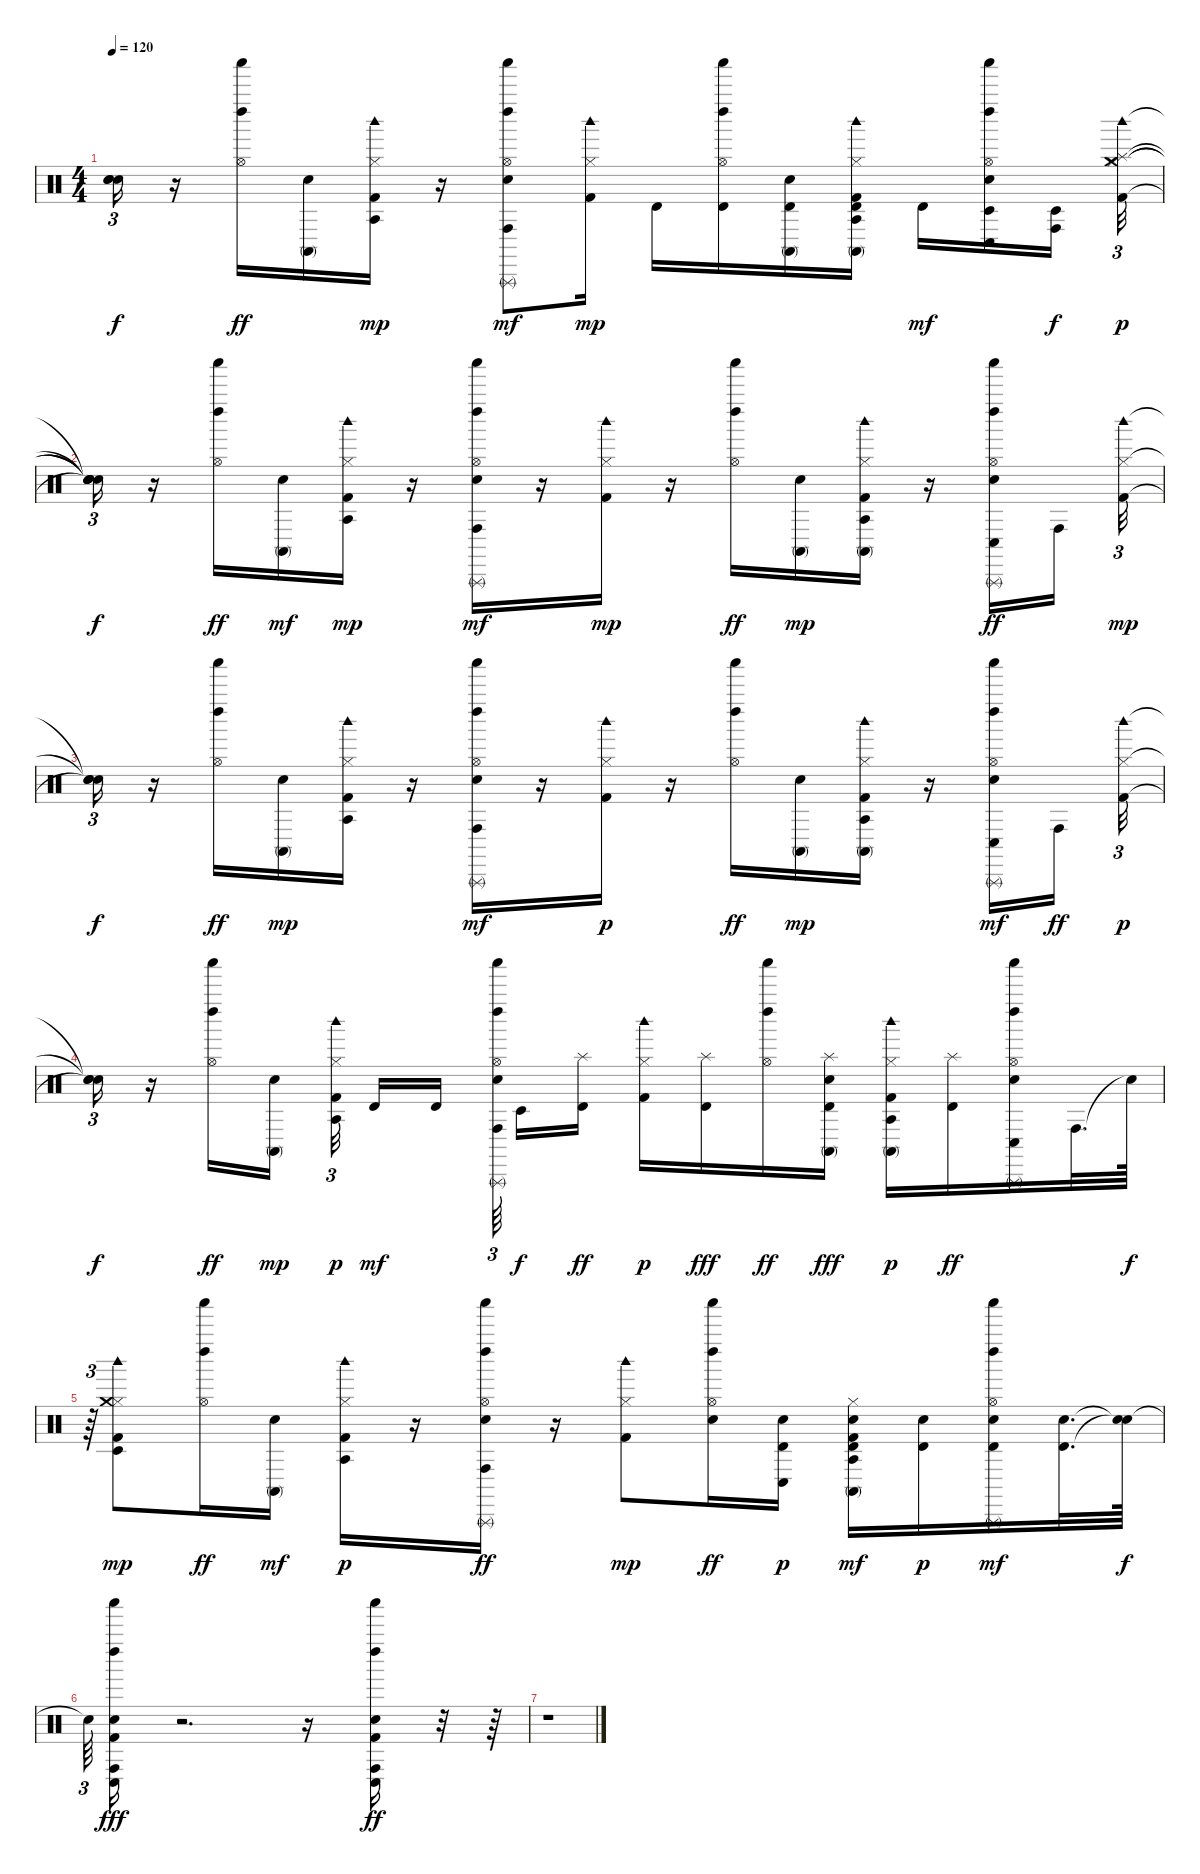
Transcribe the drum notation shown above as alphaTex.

\track "" {instrument percussion}
\staff {score}
\articulation defaults
\ts (4 4)
\tempo 120
\clef neutral
\ks c
("Snare (hit)"{t} "Snare (hit)"{t} "Snare (hit)"{t}).16{tu (3 2) dy f} r.16 ("Shaker (hit)" "Left Maraca (hit)" "Hi-Hat (open)").16{dy ff} ("Electric Snare (hit)" "Conga high (mute)").16 ("Kick (hit) 2" "Hi-Hat (closed)" "Agogo tow (hit)" "Woodblock high (hit)").16{dy mp} r.16 ("Shaker (hit)" "Left Maraca (hit)" "Electric Snare (hit)" "Conga high (hit)" "Hi-Hat (open)" "Triangle (rnute)").8{dy mf} ("Kick (hit) 2" "Hi-Hat (closed)" "Woodblock high (hit)").16{dy mp} "Timbale high (hit)".16 ("Shaker (hit)" "Left Maraca (hit)" "Hi-Hat (open)" "Timbale high (hit)").16 ("Electric Snare (hit)" "Conga high (mute)" "Timbale high (hit)").16 ("Kick (hit) 2" "Conga high (mute)" "Hi-Hat (closed)" "Timbale high (hit)" "Agogo tow (hit)" "Woodblock high (hit)").16 "Timbale high (hit)".16{dy mf} ("Shaker (hit)" "Left Maraca (hit)" "Electric Snare (hit)" "Conga low (hit)" "Hi-Hat (open)" "Timbale low (hit)").16 ("Conga high (hit)" "Timbale low (hit)").16{dy f beam splitsecondary} ("Kick (hit) 2" "Hi-Hat (closed)" "Crash medium (hit)" "Splash (hit)" "Woodblock high (hit)").32{tu (3 2) dy p} |
("Snare (hit)"{t} "Snare (hit)"{t} "Snare (hit)"{t} "Snare (hit)"{t} "Snare (hit)"{t}).16{tu (3 2) dy f} r.16 ("Shaker (hit)" "Left Maraca (hit)" "Hi-Hat (open)").16{dy ff} ("Electric Snare (hit)" "Conga high (mute)").16{dy mf} ("Kick (hit) 2" "Hi-Hat (closed)" "Agogo tow (hit)" "Woodblock high (hit)").16{dy mp} r.16 ("Shaker (hit)" "Left Maraca (hit)" "Electric Snare (hit)" "Conga high (hit)" "Hi-Hat (open)" "Triangle (rnute)").16{dy mf} r.16 ("Kick (hit) 2" "Hi-Hat (closed)" "Woodblock high (hit)").16{dy mp} r.16 ("Shaker (hit)" "Left Maraca (hit)" "Hi-Hat (open)").16{dy ff} ("Electric Snare (hit)" "Conga high (mute)").16{dy mp} ("Kick (hit) 2" "Conga high (mute)" "Hi-Hat (closed)" "Agogo tow (hit)" "Woodblock high (hit)").16 r.16 ("Shaker (hit)" "Left Maraca (hit)" "Electric Snare (hit)" "Conga low (hit)" "Hi-Hat (open)" "Triangle (rnute)").16{dy ff} "Conga high (hit)".16{beam splitsecondary} ("Kick (hit) 2" "Hi-Hat (closed)" "Woodblock high (hit)").32{tu (3 2) dy mp} |
("Snare (hit)"{t} "Snare (hit)"{t} "Snare (hit)"{t}).16{tu (3 2) dy f} r.16 ("Shaker (hit)" "Left Maraca (hit)" "Hi-Hat (open)").16{dy ff} ("Electric Snare (hit)" "Conga high (mute)").16{dy mp} ("Kick (hit) 2" "Hi-Hat (closed)" "Agogo tow (hit)" "Woodblock high (hit)").16 r.16 ("Shaker (hit)" "Left Maraca (hit)" "Electric Snare (hit)" "Conga high (hit)" "Hi-Hat (open)" "Triangle (rnute)").16{dy mf} r.16 ("Kick (hit) 2" "Hi-Hat (closed)" "Woodblock high (hit)").16{dy p} r.16 ("Shaker (hit)" "Left Maraca (hit)" "Hi-Hat (open)").16{dy ff} ("Electric Snare (hit)" "Conga high (mute)").16{dy mp} ("Kick (hit) 2" "Conga high (mute)" "Hi-Hat (closed)" "Agogo tow (hit)" "Woodblock high (hit)").16 r.16 ("Shaker (hit)" "Left Maraca (hit)" "Electric Snare (hit)" "Conga low (hit)" "Hi-Hat (open)" "Triangle (rnute)").16{dy mf} "Conga high (hit)".16{dy ff beam splitsecondary} ("Kick (hit) 2" "Hi-Hat (closed)" "Woodblock high (hit)").32{tu (3 2) dy p} |
("Snare (hit)"{t} "Snare (hit)"{t} "Snare (hit)"{t}).16{tu (3 2) dy f} r.16 ("Shaker (hit)" "Left Maraca (hit)" "Hi-Hat (open)").16{dy ff} ("Electric Snare (hit)" "Conga high (mute)").16{dy mp beam splitsecondary} ("Kick (hit) 2" "Hi-Hat (closed)" "Agogo tow (hit)" "Woodblock high (hit)").32{tu (3 2) dy p} "Timbale high (hit)".16{dy mf} "Timbale high (hit)".16{beam splitsecondary} ("Shaker (hit)" "Left Maraca (hit)" "Electric Snare (hit)" "Conga high (hit)" "Hi-Hat (open)" "Triangle (rnute)").64{tu (3 2) beam splitsecondary} "Timbale low (hit)".16{dy f} ("Splash (hit)" "Timbale high (hit)").16{dy ff} ("Kick (hit) 2" "Hi-Hat (closed)" "Woodblock high (hit)").16{dy p} ("Splash (hit)" "Timbale high (hit)").16{dy fff} ("Shaker (hit)" "Left Maraca (hit)" "Hi-Hat (open)").16{dy ff} ("Electric Snare (hit)" "Conga high (mute)" "Splash (hit)" "Timbale high (hit)").16{dy fff} ("Kick (hit) 2" "Conga high (mute)" "Hi-Hat (closed)" "Agogo tow (hit)" "Woodblock high (hit)").16{dy p} ("Splash (hit)" "Timbale high (hit)").16{dy ff} ("Shaker (hit)" "Left Maraca (hit)" "Electric Snare (hit)" "Conga low (hit)" "Hi-Hat (open)" "Triangle (rnute)").16 "Conga high (hit)".32{d} "Snare (hit)"{t}.64{dy f} |
r.64{tu (3 2)} ("Kick (hit) 2" "Hi-Hat (closed)" "Crash medium (hit)" "Timbale low (hit)" "Woodblock high (hit)").8{dy mp} ("Shaker (hit)" "Left Maraca (hit)" "Hi-Hat (open)").16{dy ff} ("Electric Snare (hit)" "Conga high (mute)").16{dy mf} ("Kick (hit) 2" "Hi-Hat (closed)" "Agogo tow (hit)" "Woodblock high (hit)").16{dy p} r.16 ("Shaker (hit)" "Left Maraca (hit)" "Electric Snare (hit)" "Conga high (hit)" "Hi-Hat (open)" "Triangle (rnute)").16{dy ff} r.16 ("Kick (hit) 2" "Hi-Hat (closed)" "Woodblock high (hit)").8{dy mp} ("Shaker (hit)" "Left Maraca (hit)" "Electric Snare (hit)" "Hi-Hat (open)").16{dy ff} ("Electric Snare (hit)" "Conga low (hit)" "Timbale high (hit)").16{dy p} ("Kick (hit) 2" "Electric Snare (hit)" "Conga high (mute)" "Hi-Hat (closed)" "Timbale high (hit)" "Agogo tow (hit)").16{dy mf} ("Electric Snare (hit)" "Timbale high (hit)").16{dy p} ("Shaker (hit)" "Left Maraca (hit)" "Electric Snare (hit)" "Hi-Hat (open)" "Timbale high (hit)" "Triangle (rnute)").16{dy mf} ("Electric Snare (hit)" "Timbale high (hit)").32{d} ("Snare (hit)"{t} "Snare (hit)"{t}).64{dy f} |
"Snare (hit)"{t}.64{tu (3 2)} ("Kick (hit) 2" "Shaker (hit)" "Left Maraca (hit)" "Electric Snare (hit)" "Conga low (hit)" "Conga high (hit)").16{dy fff} r.2{d} r.16 ("Kick (hit) 2" "Shaker (hit)" "Left Maraca (hit)" "Electric Snare (hit)" "Conga low (hit)" "Conga high (hit)").16{dy ff} r.32 r.64 |
r.1
